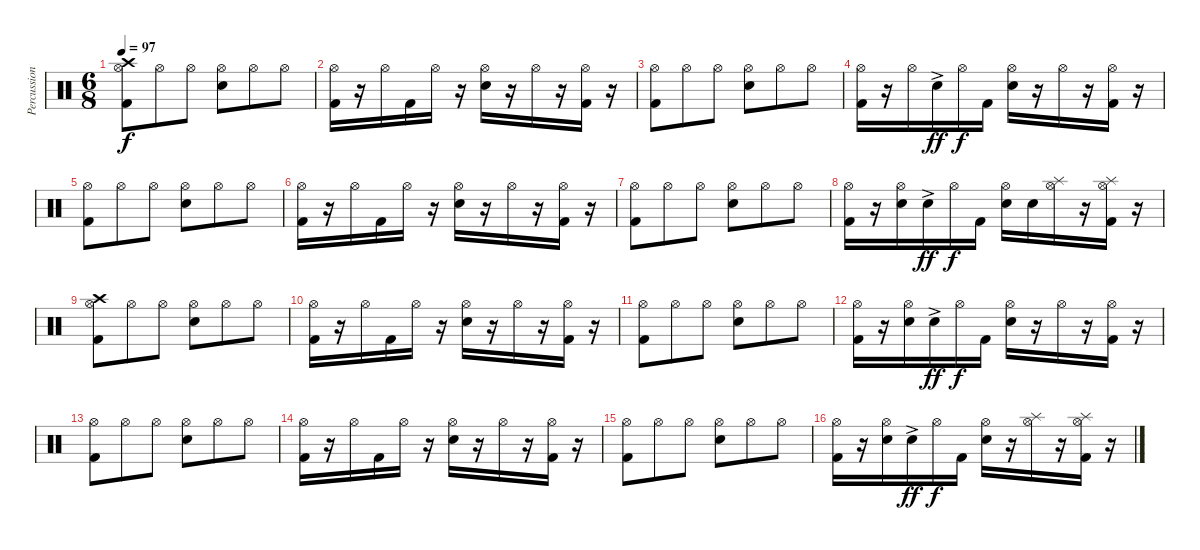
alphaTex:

\track ("Percussion" "Percussion") {instrument percussion}
\staff {score}
\articulation defaults
\ts (6 8)
\tempo 97
\clef neutral
\ks c
("Crash high (hit)" "Hi-Hat (open)" "Kick (hit) 2").8{dy f} "Hi-Hat (open)".8 "Hi-Hat (open)".8 ("Hi-Hat (open)" "Electric Snare (hit)").8 "Hi-Hat (open)".8 "Hi-Hat (open)".8 |
("Hi-Hat (open)" "Kick (hit) 2").16 r.16 "Hi-Hat (open)".16 "Kick (hit) 2".16 "Hi-Hat (open)".16 r.16 ("Hi-Hat (open)" "Electric Snare (hit)").16 r.16 "Hi-Hat (open)".16 r.16 ("Hi-Hat (open)" "Kick (hit) 2").16 r.16 |
("Hi-Hat (open)" "Kick (hit) 2").8 "Hi-Hat (open)".8 "Hi-Hat (open)".8 ("Hi-Hat (open)" "Electric Snare (hit)").8 "Hi-Hat (open)".8 "Hi-Hat (open)".8 |
("Hi-Hat (open)" "Kick (hit) 2").16 r.16 "Hi-Hat (open)".16 "Electric Snare (hit)"{ac}.16{dy ff} "Hi-Hat (open)".16{dy f} "Kick (hit) 2".16 ("Hi-Hat (open)" "Electric Snare (hit)").16 r.16 "Hi-Hat (open)".16 r.16 ("Hi-Hat (open)" "Kick (hit) 2").16 r.16 |
("Hi-Hat (open)" "Kick (hit) 2").8 "Hi-Hat (open)".8 "Hi-Hat (open)".8 ("Hi-Hat (open)" "Electric Snare (hit)").8 "Hi-Hat (open)".8 "Hi-Hat (open)".8 |
("Hi-Hat (open)" "Kick (hit) 2").16 r.16 "Hi-Hat (open)".16 "Kick (hit) 2".16 "Hi-Hat (open)".16 r.16 ("Hi-Hat (open)" "Electric Snare (hit)").16 r.16 "Hi-Hat (open)".16 r.16 ("Hi-Hat (open)" "Kick (hit) 2").16 r.16 |
("Hi-Hat (open)" "Kick (hit) 2").8 "Hi-Hat (open)".8 "Hi-Hat (open)".8 ("Hi-Hat (open)" "Electric Snare (hit)").8 "Hi-Hat (open)".8 "Hi-Hat (open)".8 |
("Hi-Hat (open)" "Kick (hit) 2").16 r.16 ("Hi-Hat (open)" "Electric Snare (hit)").16 "Electric Snare (hit)"{ac}.16{dy ff} "Hi-Hat (open)".16{dy f} "Kick (hit) 2".16 ("Hi-Hat (open)" "Electric Snare (hit)").16 "Electric Snare (hit)".16 ("Splash (hit)" "Hi-Hat (open)").16 r.16 ("Splash (hit)" "Hi-Hat (open)" "Kick (hit) 2").16 r.16 |
("Crash high (hit)" "Hi-Hat (open)" "Kick (hit) 2").8 "Hi-Hat (open)".8 "Hi-Hat (open)".8 ("Hi-Hat (open)" "Electric Snare (hit)").8 "Hi-Hat (open)".8 "Hi-Hat (open)".8 |
("Hi-Hat (open)" "Kick (hit) 2").16 r.16 "Hi-Hat (open)".16 "Kick (hit) 2".16 "Hi-Hat (open)".16 r.16 ("Hi-Hat (open)" "Electric Snare (hit)").16 r.16 "Hi-Hat (open)".16 r.16 ("Hi-Hat (open)" "Kick (hit) 2").16 r.16 |
("Hi-Hat (open)" "Kick (hit) 2").8 "Hi-Hat (open)".8 "Hi-Hat (open)".8 ("Hi-Hat (open)" "Electric Snare (hit)").8 "Hi-Hat (open)".8 "Hi-Hat (open)".8 |
("Hi-Hat (open)" "Kick (hit) 2").16 r.16 ("Hi-Hat (open)" "Electric Snare (hit)").16 "Electric Snare (hit)"{ac}.16{dy ff} "Hi-Hat (open)".16{dy f} "Kick (hit) 2".16 ("Hi-Hat (open)" "Electric Snare (hit)").16 r.16 "Hi-Hat (open)".16 r.16 ("Hi-Hat (open)" "Kick (hit) 2").16 r.16 |
("Hi-Hat (open)" "Kick (hit) 2").8 "Hi-Hat (open)".8 "Hi-Hat (open)".8 ("Hi-Hat (open)" "Electric Snare (hit)").8 "Hi-Hat (open)".8 "Hi-Hat (open)".8 |
("Hi-Hat (open)" "Kick (hit) 2").16 r.16 "Hi-Hat (open)".16 "Kick (hit) 2".16 "Hi-Hat (open)".16 r.16 ("Hi-Hat (open)" "Electric Snare (hit)").16 r.16 "Hi-Hat (open)".16 r.16 ("Hi-Hat (open)" "Kick (hit) 2").16 r.16 |
("Hi-Hat (open)" "Kick (hit) 2").8 "Hi-Hat (open)".8 "Hi-Hat (open)".8 ("Hi-Hat (open)" "Electric Snare (hit)").8 "Hi-Hat (open)".8 "Hi-Hat (open)".8 |
("Hi-Hat (open)" "Kick (hit) 2").16 r.16 ("Hi-Hat (open)" "Electric Snare (hit)").16 "Electric Snare (hit)"{ac}.16{dy ff} "Hi-Hat (open)".16{dy f} "Kick (hit) 2".16 ("Hi-Hat (open)" "Electric Snare (hit)").16 r.16 ("Splash (hit)" "Hi-Hat (open)").16 r.16 ("Splash (hit)" "Hi-Hat (open)" "Kick (hit) 2").16 r.16
